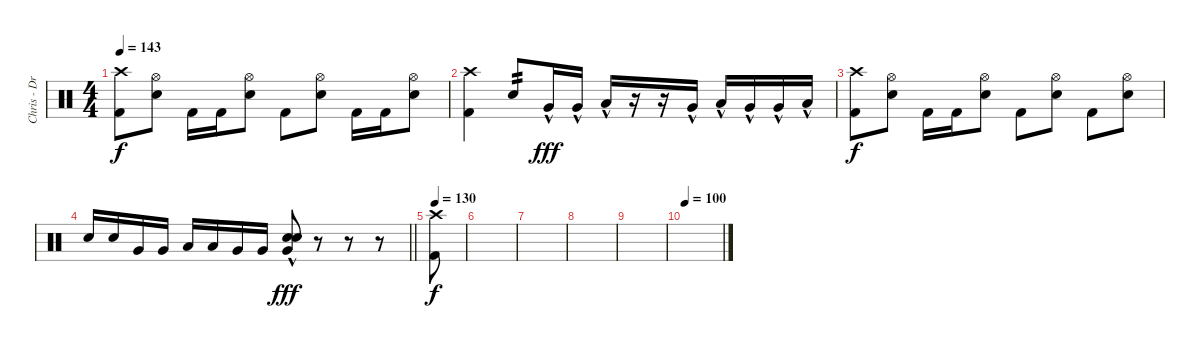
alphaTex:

\track ("Chris - Drums" "Chris - Dr") {instrument percussion}
\staff {score}
\articulation defaults
\ts (4 4)
\tempo 143
\clef neutral
\ks c
("Crash high (hit)" "Kick (hit) 2").8{dy f} ("Hi-Hat (open)" "Electric Snare (hit)").8 "Kick (hit) 2".16 "Kick (hit) 2".16 ("Hi-Hat (open)" "Electric Snare (hit)").8 "Kick (hit) 2".8 ("Hi-Hat (open)" "Electric Snare (hit)").8 "Kick (hit) 2".16 "Kick (hit) 2".16 ("Hi-Hat (open)" "Electric Snare (hit)").8 |
("Crash high (hit)" "Kick (hit) 2").4 "Electric Snare (hit)".8{tp 2} "Very Low Tom (hit)"{hac}.16{dy fff} "Very Low Tom (hit)"{hac}.16 "Low Tom (hit)"{hac}.16 r.16 r.16 "Very Low Tom (hit)"{hac}.16 "Low Tom (hit)"{hac}.16 "Very Low Tom (hit)"{hac}.16 "Very Low Tom (hit)"{hac}.16 "Low Floor Tom (hit)"{hac}.16 |
("Crash high (hit)" "Kick (hit) 2").8{dy f} ("Hi-Hat (open)" "Electric Snare (hit)").8 "Kick (hit) 2".16 "Kick (hit) 2".16 ("Hi-Hat (open)" "Electric Snare (hit)").8 "Kick (hit) 2".8 ("Hi-Hat (open)" "Electric Snare (hit)").8 "Kick (hit) 2".8 ("Hi-Hat (open)" "Electric Snare (hit)").8 |
\barLineRight lightlight "Electric Snare (hit)".16 "Electric Snare (hit)".16 "Very Low Tom (hit)".16 "Very Low Tom (hit)".16 "Low Tom (hit)".16 "Low Tom (hit)".16 "Very Low Tom (hit)".16 "Very Low Tom (hit)".16
("Very Low Tom (hit)"{hac} "Electric Snare (hit)"{hac} "Electric Snare (hit)"{hac}).8{dy fff} r.8 r.8 r.8 |
\tempo 130
("Crash high (hit)" "Kick (hit) 2").8{dy f} |
|
|
|
|
\tempo 100
